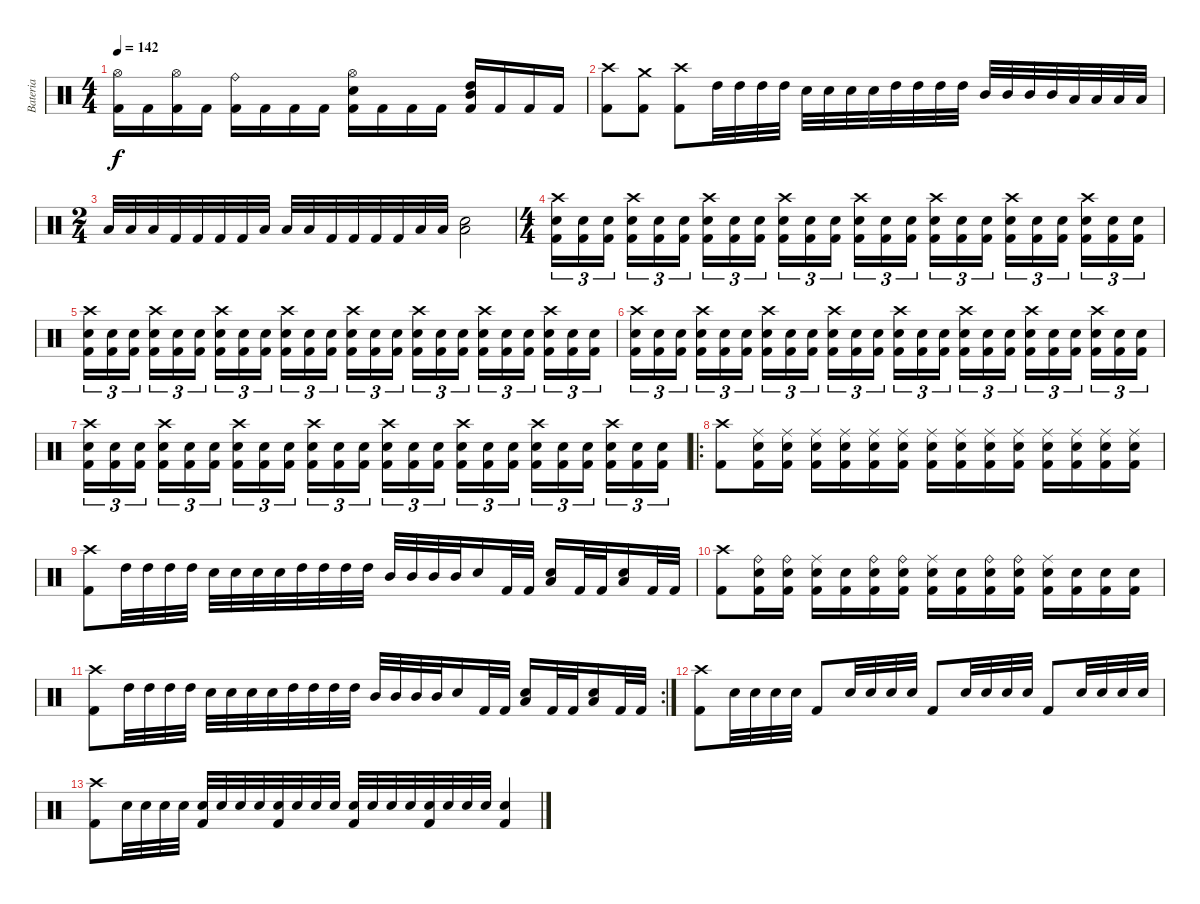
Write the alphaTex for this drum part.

\track ("Bateria" "Bateria") {instrument percussion}
\staff {score}
\articulation defaults
\ts (4 4)
\tempo 142
\clef neutral
\ks c
("Hi-Hat (open)" "Kick (hit) 2").16{dy f} "Kick (hit) 2".16 ("Hi-Hat (open)" "Kick (hit) 2").16 "Kick (hit) 2".16 ("Ride (bell)" "Kick (hit) 2").16 "Kick (hit) 2".16 "Kick (hit) 2".16 "Kick (hit) 2".16 ("Hi-Hat (open)" "Electric Snare (hit)" "Kick (hit) 2").16 "Kick (hit) 2".16 "Kick (hit) 2".16 "Kick (hit) 2".16 ("High Tom (hit)" "Mid Tom (hit)" "Kick (hit) 2").16 "Kick (hit) 2".16 "Kick (hit) 2".16 "Kick (hit) 2".16 |
("Crash high (hit)" "Kick (hit) 2").8 ("Crash medium (hit)" "Kick (hit) 2").8 ("Crash high (hit)" "Kick (hit) 2").8 "High Tom (hit)".32 "High Tom (hit)".32 "High Tom (hit)".32 "High Tom (hit)".32 "Electric Snare (hit)".32 "Electric Snare (hit)".32 "Electric Snare (hit)".32 "Electric Snare (hit)".32 "High Tom (hit)".32 "High Tom (hit)".32 "High Tom (hit)".32 "High Tom (hit)".32 "Mid Tom (hit)".32 "Mid Tom (hit)".32 "Mid Tom (hit)".32 "Mid Tom (hit)".32 "Low Tom (hit)".32 "Low Tom (hit)".32 "Low Tom (hit)".32 "Low Tom (hit)".32 |
\ts (2 4)
"Low Tom (hit)".32 "Low Tom (hit)".32 "Low Tom (hit)".32 "Kick (hit) 2".32 "Kick (hit) 2".32 "Kick (hit) 2".32 "Kick (hit) 2".32 "Low Tom (hit)".32 "Low Tom (hit)".32 "Low Tom (hit)".32 "Kick (hit) 2".32 "Kick (hit) 2".32 "Kick (hit) 2".32 "Kick (hit) 2".32 "Low Tom (hit)".32 "Low Tom (hit)".32 ("Low Tom (hit)" "Electric Snare (hit)").2 |
\ts (4 4)
("Crash high (hit)" "Electric Snare (hit)" "Kick (hit) 2").16{tu (3 2)} ("Electric Snare (hit)" "Kick (hit) 2").16{tu (3 2)} ("Electric Snare (hit)" "Kick (hit) 2").16{tu (3 2) beam splitsecondary} ("Crash high (hit)" "Electric Snare (hit)" "Kick (hit) 2").16{tu (3 2)} ("Electric Snare (hit)" "Kick (hit) 2").16{tu (3 2)} ("Electric Snare (hit)" "Kick (hit) 2").16{tu (3 2)} ("Crash high (hit)" "Electric Snare (hit)" "Kick (hit) 2").16{tu (3 2)} ("Electric Snare (hit)" "Kick (hit) 2").16{tu (3 2)} ("Electric Snare (hit)" "Kick (hit) 2").16{tu (3 2) beam splitsecondary} ("Crash high (hit)" "Electric Snare (hit)" "Kick (hit) 2").16{tu (3 2)} ("Electric Snare (hit)" "Kick (hit) 2").16{tu (3 2)} ("Electric Snare (hit)" "Kick (hit) 2").16{tu (3 2)} ("Crash high (hit)" "Electric Snare (hit)" "Kick (hit) 2").16{tu (3 2)} ("Electric Snare (hit)" "Kick (hit) 2").16{tu (3 2)} ("Electric Snare (hit)" "Kick (hit) 2").16{tu (3 2) beam splitsecondary} ("Crash high (hit)" "Electric Snare (hit)" "Kick (hit) 2").16{tu (3 2)} ("Electric Snare (hit)" "Kick (hit) 2").16{tu (3 2)} ("Electric Snare (hit)" "Kick (hit) 2").16{tu (3 2)} ("Crash high (hit)" "Electric Snare (hit)" "Kick (hit) 2").16{tu (3 2)} ("Electric Snare (hit)" "Kick (hit) 2").16{tu (3 2)} ("Electric Snare (hit)" "Kick (hit) 2").16{tu (3 2) beam splitsecondary} ("Crash high (hit)" "Electric Snare (hit)" "Kick (hit) 2").16{tu (3 2)} ("Electric Snare (hit)" "Kick (hit) 2").16{tu (3 2)} ("Electric Snare (hit)" "Kick (hit) 2").16{tu (3 2)} |
("Crash high (hit)" "Electric Snare (hit)" "Kick (hit) 2").16{tu (3 2)} ("Electric Snare (hit)" "Kick (hit) 2").16{tu (3 2)} ("Electric Snare (hit)" "Kick (hit) 2").16{tu (3 2) beam splitsecondary} ("Crash high (hit)" "Electric Snare (hit)" "Kick (hit) 2").16{tu (3 2)} ("Electric Snare (hit)" "Kick (hit) 2").16{tu (3 2)} ("Electric Snare (hit)" "Kick (hit) 2").16{tu (3 2)} ("Crash high (hit)" "Electric Snare (hit)" "Kick (hit) 2").16{tu (3 2)} ("Electric Snare (hit)" "Kick (hit) 2").16{tu (3 2)} ("Electric Snare (hit)" "Kick (hit) 2").16{tu (3 2) beam splitsecondary} ("Crash high (hit)" "Electric Snare (hit)" "Kick (hit) 2").16{tu (3 2)} ("Electric Snare (hit)" "Kick (hit) 2").16{tu (3 2)} ("Electric Snare (hit)" "Kick (hit) 2").16{tu (3 2)} ("Crash high (hit)" "Electric Snare (hit)" "Kick (hit) 2").16{tu (3 2)} ("Electric Snare (hit)" "Kick (hit) 2").16{tu (3 2)} ("Electric Snare (hit)" "Kick (hit) 2").16{tu (3 2) beam splitsecondary} ("Crash high (hit)" "Electric Snare (hit)" "Kick (hit) 2").16{tu (3 2)} ("Electric Snare (hit)" "Kick (hit) 2").16{tu (3 2)} ("Electric Snare (hit)" "Kick (hit) 2").16{tu (3 2)} ("Crash high (hit)" "Electric Snare (hit)" "Kick (hit) 2").16{tu (3 2)} ("Electric Snare (hit)" "Kick (hit) 2").16{tu (3 2)} ("Electric Snare (hit)" "Kick (hit) 2").16{tu (3 2) beam splitsecondary} ("Crash high (hit)" "Electric Snare (hit)" "Kick (hit) 2").16{tu (3 2)} ("Electric Snare (hit)" "Kick (hit) 2").16{tu (3 2)} ("Electric Snare (hit)" "Kick (hit) 2").16{tu (3 2)} |
("Crash high (hit)" "Electric Snare (hit)" "Kick (hit) 2").16{tu (3 2)} ("Electric Snare (hit)" "Kick (hit) 2").16{tu (3 2)} ("Electric Snare (hit)" "Kick (hit) 2").16{tu (3 2) beam splitsecondary} ("Crash high (hit)" "Electric Snare (hit)" "Kick (hit) 2").16{tu (3 2)} ("Electric Snare (hit)" "Kick (hit) 2").16{tu (3 2)} ("Electric Snare (hit)" "Kick (hit) 2").16{tu (3 2)} ("Crash high (hit)" "Electric Snare (hit)" "Kick (hit) 2").16{tu (3 2)} ("Electric Snare (hit)" "Kick (hit) 2").16{tu (3 2)} ("Electric Snare (hit)" "Kick (hit) 2").16{tu (3 2) beam splitsecondary} ("Crash high (hit)" "Electric Snare (hit)" "Kick (hit) 2").16{tu (3 2)} ("Electric Snare (hit)" "Kick (hit) 2").16{tu (3 2)} ("Electric Snare (hit)" "Kick (hit) 2").16{tu (3 2)} ("Crash high (hit)" "Electric Snare (hit)" "Kick (hit) 2").16{tu (3 2)} ("Electric Snare (hit)" "Kick (hit) 2").16{tu (3 2)} ("Electric Snare (hit)" "Kick (hit) 2").16{tu (3 2) beam splitsecondary} ("Crash high (hit)" "Electric Snare (hit)" "Kick (hit) 2").16{tu (3 2)} ("Electric Snare (hit)" "Kick (hit) 2").16{tu (3 2)} ("Electric Snare (hit)" "Kick (hit) 2").16{tu (3 2)} ("Crash high (hit)" "Electric Snare (hit)" "Kick (hit) 2").16{tu (3 2)} ("Electric Snare (hit)" "Kick (hit) 2").16{tu (3 2)} ("Electric Snare (hit)" "Kick (hit) 2").16{tu (3 2) beam splitsecondary} ("Crash high (hit)" "Electric Snare (hit)" "Kick (hit) 2").16{tu (3 2)} ("Electric Snare (hit)" "Kick (hit) 2").16{tu (3 2)} ("Electric Snare (hit)" "Kick (hit) 2").16{tu (3 2)} |
("Crash high (hit)" "Electric Snare (hit)" "Kick (hit) 2").16{tu (3 2)} ("Electric Snare (hit)" "Kick (hit) 2").16{tu (3 2)} ("Electric Snare (hit)" "Kick (hit) 2").16{tu (3 2) beam splitsecondary} ("Crash high (hit)" "Electric Snare (hit)" "Kick (hit) 2").16{tu (3 2)} ("Electric Snare (hit)" "Kick (hit) 2").16{tu (3 2)} ("Electric Snare (hit)" "Kick (hit) 2").16{tu (3 2)} ("Crash high (hit)" "Electric Snare (hit)" "Kick (hit) 2").16{tu (3 2)} ("Electric Snare (hit)" "Kick (hit) 2").16{tu (3 2)} ("Electric Snare (hit)" "Kick (hit) 2").16{tu (3 2) beam splitsecondary} ("Crash high (hit)" "Electric Snare (hit)" "Kick (hit) 2").16{tu (3 2)} ("Electric Snare (hit)" "Kick (hit) 2").16{tu (3 2)} ("Electric Snare (hit)" "Kick (hit) 2").16{tu (3 2)} ("Crash high (hit)" "Electric Snare (hit)" "Kick (hit) 2").16{tu (3 2)} ("Electric Snare (hit)" "Kick (hit) 2").16{tu (3 2)} ("Electric Snare (hit)" "Kick (hit) 2").16{tu (3 2) beam splitsecondary} ("Crash high (hit)" "Electric Snare (hit)" "Kick (hit) 2").16{tu (3 2)} ("Electric Snare (hit)" "Kick (hit) 2").16{tu (3 2)} ("Electric Snare (hit)" "Kick (hit) 2").16{tu (3 2)} ("Crash high (hit)" "Electric Snare (hit)" "Kick (hit) 2").16{tu (3 2)} ("Electric Snare (hit)" "Kick (hit) 2").16{tu (3 2)} ("Electric Snare (hit)" "Kick (hit) 2").16{tu (3 2) beam splitsecondary} ("Crash high (hit)" "Electric Snare (hit)" "Kick (hit) 2").16{tu (3 2)} ("Electric Snare (hit)" "Kick (hit) 2").16{tu (3 2)} ("Electric Snare (hit)" "Kick (hit) 2").16{tu (3 2)} |
\ro
("Crash high (hit)" "Kick (hit) 2").8 ("Ride (middle)" "Electric Snare (hit)" "Kick (hit) 2").16 ("Ride (middle)" "Electric Snare (hit)" "Kick (hit) 2").16 ("Ride (middle)" "Electric Snare (hit)" "Kick (hit) 2").16 ("Ride (middle)" "Electric Snare (hit)" "Kick (hit) 2").16 ("Ride (middle)" "Electric Snare (hit)" "Kick (hit) 2").16 ("Ride (middle)" "Electric Snare (hit)" "Kick (hit) 2").16 ("Ride (middle)" "Electric Snare (hit)" "Kick (hit) 2").16 ("Ride (middle)" "Electric Snare (hit)" "Kick (hit) 2").16 ("Ride (middle)" "Electric Snare (hit)" "Kick (hit) 2").16 ("Ride (middle)" "Electric Snare (hit)" "Kick (hit) 2").16 ("Ride (middle)" "Electric Snare (hit)" "Kick (hit) 2").16 ("Ride (middle)" "Electric Snare (hit)" "Kick (hit) 2").16 ("Ride (middle)" "Electric Snare (hit)" "Kick (hit) 2").16 ("Ride (middle)" "Electric Snare (hit)" "Kick (hit) 2").16 |
("Crash high (hit)" "Kick (hit) 2").8 "High Tom (hit)".32 "High Tom (hit)".32 "High Tom (hit)".32 "High Tom (hit)".32 "Electric Snare (hit)".32 "Electric Snare (hit)".32 "Electric Snare (hit)".32 "Electric Snare (hit)".32 "High Tom (hit)".32 "High Tom (hit)".32 "High Tom (hit)".32 "High Tom (hit)".32 "Mid Tom (hit)".32 "Mid Tom (hit)".32 "Mid Tom (hit)".32 "Mid Tom (hit)".32 "Electric Snare (hit)".16 "Kick (hit) 2".32 "Kick (hit) 2".32 ("Low Tom (hit)" "Electric Snare (hit)").16 "Kick (hit) 2".32 "Kick (hit) 2".32 ("Low Tom (hit)" "Electric Snare (hit)").16 "Kick (hit) 2".32 "Kick (hit) 2".32 |
("Crash high (hit)" "Kick (hit) 2").8 ("Ride (bell)" "Electric Snare (hit)" "Kick (hit) 2").16 ("Ride (bell)" "Electric Snare (hit)" "Kick (hit) 2").16 ("Ride (middle)" "Electric Snare (hit)" "Kick (hit) 2").16 ("Electric Snare (hit)" "Kick (hit) 2").16 ("Ride (bell)" "Electric Snare (hit)" "Kick (hit) 2").16 ("Ride (bell)" "Electric Snare (hit)" "Kick (hit) 2").16 ("Ride (middle)" "Electric Snare (hit)" "Kick (hit) 2").16 ("Electric Snare (hit)" "Kick (hit) 2").16 ("Ride (bell)" "Electric Snare (hit)" "Kick (hit) 2").16 ("Ride (bell)" "Electric Snare (hit)" "Kick (hit) 2").16 ("Ride (middle)" "Electric Snare (hit)" "Kick (hit) 2").16 ("Electric Snare (hit)" "Kick (hit) 2").16 ("Electric Snare (hit)" "Kick (hit) 2").16 ("Electric Snare (hit)" "Kick (hit) 2").16 |
\rc 2
("Crash high (hit)" "Kick (hit) 2").8 "High Tom (hit)".32 "High Tom (hit)".32 "High Tom (hit)".32 "High Tom (hit)".32 "Electric Snare (hit)".32 "Electric Snare (hit)".32 "Electric Snare (hit)".32 "Electric Snare (hit)".32 "High Tom (hit)".32 "High Tom (hit)".32 "High Tom (hit)".32 "High Tom (hit)".32 "Mid Tom (hit)".32 "Mid Tom (hit)".32 "Mid Tom (hit)".32 "Mid Tom (hit)".32 "Electric Snare (hit)".16 "Kick (hit) 2".32 "Kick (hit) 2".32 ("Low Tom (hit)" "Electric Snare (hit)").16 "Kick (hit) 2".32 "Kick (hit) 2".32 ("Low Tom (hit)" "Electric Snare (hit)").16 "Kick (hit) 2".32 "Kick (hit) 2".32 |
("Crash high (hit)" "Kick (hit) 2").8 "Electric Snare (hit)".32 "Electric Snare (hit)".32 "Electric Snare (hit)".32 "Electric Snare (hit)".32 "Kick (hit) 2".8 "Electric Snare (hit)".32 "Electric Snare (hit)".32 "Electric Snare (hit)".32 "Electric Snare (hit)".32 "Kick (hit) 2".8 "Electric Snare (hit)".32 "Electric Snare (hit)".32 "Electric Snare (hit)".32 "Electric Snare (hit)".32 "Kick (hit) 2".8 "Electric Snare (hit)".32 "Electric Snare (hit)".32 "Electric Snare (hit)".32 "Electric Snare (hit)".32 |
("Crash high (hit)" "Kick (hit) 2").8 "Electric Snare (hit)".32 "Electric Snare (hit)".32 "Electric Snare (hit)".32 "Electric Snare (hit)".32 ("Electric Snare (hit)" "Kick (hit) 2").32 "Electric Snare (hit)".32 "Electric Snare (hit)".32 "Electric Snare (hit)".32 ("Electric Snare (hit)" "Kick (hit) 2").32 "Electric Snare (hit)".32 "Electric Snare (hit)".32 "Electric Snare (hit)".32 ("Electric Snare (hit)" "Kick (hit) 2").32 "Electric Snare (hit)".32 "Electric Snare (hit)".32 "Electric Snare (hit)".32 ("Electric Snare (hit)" "Kick (hit) 2").32 "Electric Snare (hit)".32 "Electric Snare (hit)".32 "Electric Snare (hit)".32 ("Electric Snare (hit)" "Kick (hit) 2").4
